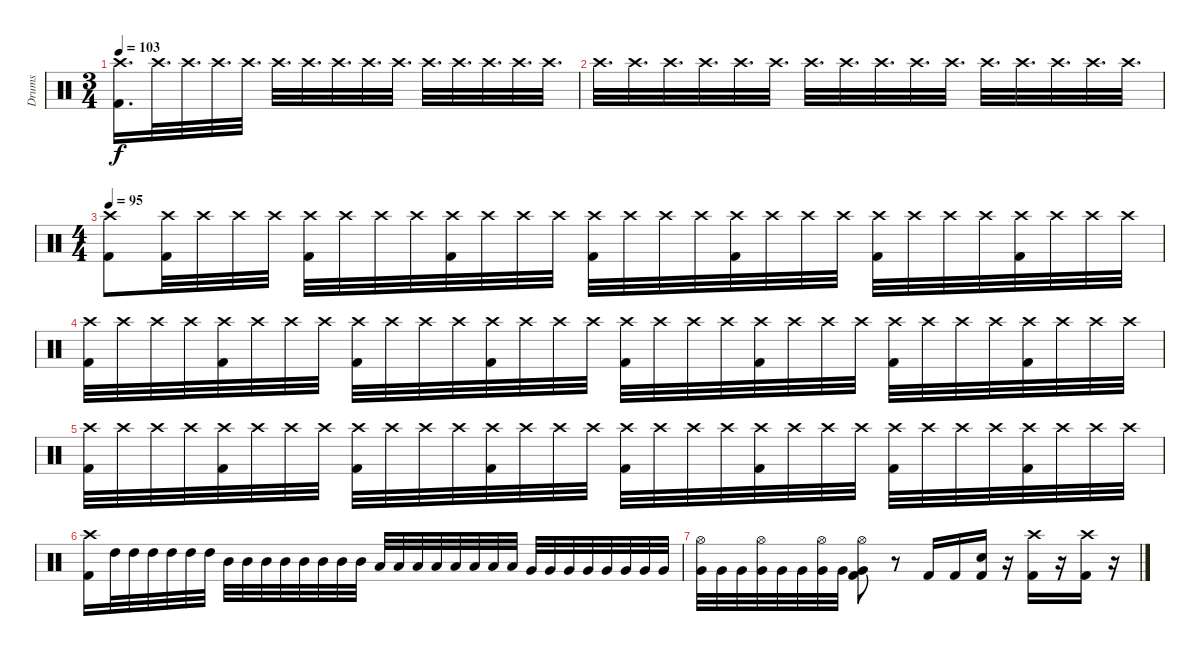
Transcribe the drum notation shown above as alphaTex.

\track ("Drums" "Drums") {instrument percussion}
\staff {score}
\articulation defaults
\ts (3 4)
\tempo 103
\clef neutral
\ks c
("Crash high (hit)" "Kick (hit) 2").16{d dy f} "Crash high (hit)".32{d} "Crash high (hit)".32{d} "Crash high (hit)".32{d} "Crash high (hit)".32{d} "Crash high (hit)".32{d} "Crash high (hit)".32{d} "Crash high (hit)".32{d} "Crash high (hit)".32{d} "Crash high (hit)".32{d} "Crash high (hit)".32{d} "Crash high (hit)".32{d} "Crash high (hit)".32{d} "Crash high (hit)".32{d} "Crash high (hit)".32{d} |
"Crash high (hit)".32{d} "Crash high (hit)".32{d} "Crash high (hit)".32{d} "Crash high (hit)".32{d} "Crash high (hit)".32{d} "Crash high (hit)".32{d} "Crash high (hit)".32{d} "Crash high (hit)".32{d} "Crash high (hit)".32{d} "Crash high (hit)".32{d} "Crash high (hit)".32{d} "Crash high (hit)".32{d} "Crash high (hit)".32{d} "Crash high (hit)".32{d} "Crash high (hit)".32{d} "Crash high (hit)".32{d} |
\ts (4 4)
\tempo 95
("Crash high (hit)" "Kick (hit) 2").8 ("Crash high (hit)" "Kick (hit) 2").32 "Crash high (hit)".32 "Crash high (hit)".32 "Crash high (hit)".32 ("Crash high (hit)" "Kick (hit) 2").32 "Crash high (hit)".32 "Crash high (hit)".32 "Crash high (hit)".32 ("Crash high (hit)" "Kick (hit) 2").32 "Crash high (hit)".32 "Crash high (hit)".32 "Crash high (hit)".32 ("Crash high (hit)" "Kick (hit) 2").32 "Crash high (hit)".32 "Crash high (hit)".32 "Crash high (hit)".32 ("Crash high (hit)" "Kick (hit) 2").32 "Crash high (hit)".32 "Crash high (hit)".32 "Crash high (hit)".32 ("Crash high (hit)" "Kick (hit) 2").32 "Crash high (hit)".32 "Crash high (hit)".32 "Crash high (hit)".32 ("Crash high (hit)" "Kick (hit) 2").32 "Crash high (hit)".32 "Crash high (hit)".32 "Crash high (hit)".32 |
("Crash high (hit)" "Kick (hit) 2").32 "Crash high (hit)".32 "Crash high (hit)".32 "Crash high (hit)".32 ("Crash high (hit)" "Kick (hit) 2").32 "Crash high (hit)".32 "Crash high (hit)".32 "Crash high (hit)".32 ("Crash high (hit)" "Kick (hit) 2").32 "Crash high (hit)".32 "Crash high (hit)".32 "Crash high (hit)".32 ("Crash high (hit)" "Kick (hit) 2").32 "Crash high (hit)".32 "Crash high (hit)".32 "Crash high (hit)".32 ("Crash high (hit)" "Kick (hit) 2").32 "Crash high (hit)".32 "Crash high (hit)".32 "Crash high (hit)".32 ("Crash high (hit)" "Kick (hit) 2").32 "Crash high (hit)".32 "Crash high (hit)".32 "Crash high (hit)".32 ("Crash high (hit)" "Kick (hit) 2").32 "Crash high (hit)".32 "Crash high (hit)".32 "Crash high (hit)".32 ("Crash high (hit)" "Kick (hit) 2").32 "Crash high (hit)".32 "Crash high (hit)".32 "Crash high (hit)".32 |
("Crash high (hit)" "Kick (hit) 2").32 "Crash high (hit)".32 "Crash high (hit)".32 "Crash high (hit)".32 ("Crash high (hit)" "Kick (hit) 2").32 "Crash high (hit)".32 "Crash high (hit)".32 "Crash high (hit)".32 ("Crash high (hit)" "Kick (hit) 2").32 "Crash high (hit)".32 "Crash high (hit)".32 "Crash high (hit)".32 ("Crash high (hit)" "Kick (hit) 2").32 "Crash high (hit)".32 "Crash high (hit)".32 "Crash high (hit)".32 ("Crash high (hit)" "Kick (hit) 2").32 "Crash high (hit)".32 "Crash high (hit)".32 "Crash high (hit)".32 ("Crash high (hit)" "Kick (hit) 2").32 "Crash high (hit)".32 "Crash high (hit)".32 "Crash high (hit)".32 ("Crash high (hit)" "Kick (hit) 2").32 "Crash high (hit)".32 "Crash high (hit)".32 "Crash high (hit)".32 ("Crash high (hit)" "Kick (hit) 2").32 "Crash high (hit)".32 "Crash high (hit)".32 "Crash high (hit)".32 |
("Crash high (hit)" "Kick (hit) 2").16 "High Tom (hit)".32 "High Tom (hit)".32 "High Tom (hit)".32 "High Tom (hit)".32 "High Tom (hit)".32 "High Tom (hit)".32 "Mid Tom (hit)".32 "Mid Tom (hit)".32 "Mid Tom (hit)".32 "Mid Tom (hit)".32 "Mid Tom (hit)".32 "Mid Tom (hit)".32 "Mid Tom (hit)".32 "Mid Tom (hit)".32 "Low Tom (hit)".32 "Low Tom (hit)".32 "Low Tom (hit)".32 "Low Tom (hit)".32 "Low Tom (hit)".32 "Low Tom (hit)".32 "Low Tom (hit)".32 "Low Tom (hit)".32 "Very Low Tom (hit)".32 "Very Low Tom (hit)".32 "Very Low Tom (hit)".32 "Very Low Tom (hit)".32 "Very Low Tom (hit)".32 "Very Low Tom (hit)".32 "Very Low Tom (hit)".32 "Very Low Tom (hit)".32 |
("Hi-Hat (open)" "Very Low Tom (hit)").32 "Very Low Tom (hit)".32 "Very Low Tom (hit)".32 ("Hi-Hat (open)" "Very Low Tom (hit)").32 "Very Low Tom (hit)".32 "Very Low Tom (hit)".32 ("Hi-Hat (open)" "Very Low Tom (hit)").32 "Very Low Tom (hit)".32 ("Hi-Hat (open)" "Very Low Tom (hit)" "Kick (hit) 2").8 r.8 "Kick (hit) 2".16 "Kick (hit) 2".16 ("Snare (hit) 2" "Kick (hit) 2").16 r.16 ("Crash high (hit)" "Kick (hit) 2").16 r.16 ("Crash high (hit)" "Kick (hit) 2").16 r.16
